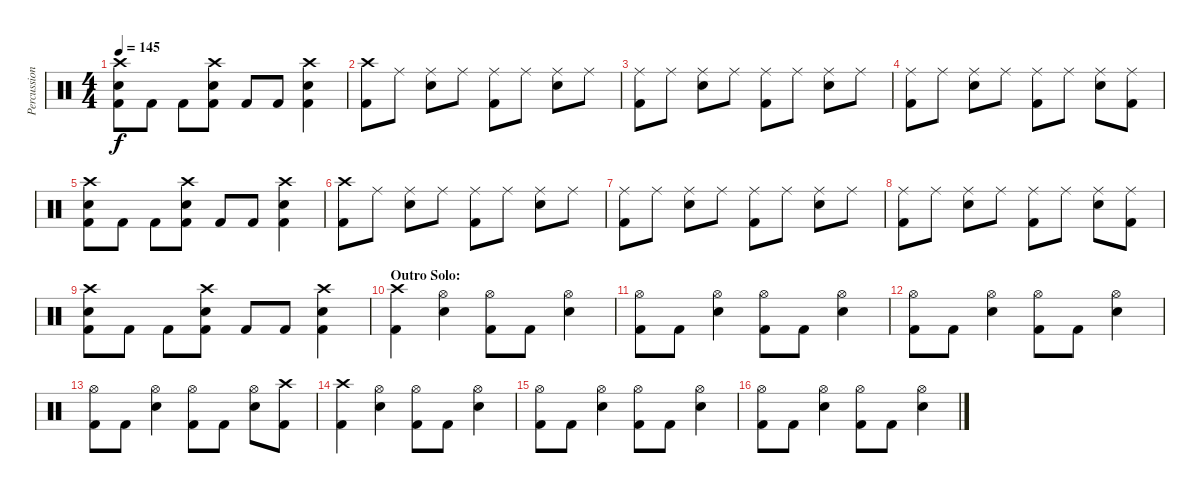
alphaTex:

\track ("Percussion" "Percussion") {instrument percussion}
\staff {score}
\articulation defaults
\ts (4 4)
\tempo 145
\clef neutral
\ks c
("Crash high (hit)" "Electric Snare (hit)" "Kick (hit) 2").8{dy f} "Kick (hit) 2".8 "Kick (hit) 2".8 ("Crash high (hit)" "Electric Snare (hit)" "Kick (hit) 2").8 "Kick (hit) 2".8 "Kick (hit) 2".8 ("Crash high (hit)" "Electric Snare (hit)" "Kick (hit) 2").4 |
("Crash high (hit)" "Kick (hit) 2").8 "Ride (middle)".8 ("Ride (middle)" "Electric Snare (hit)").8 "Ride (middle)".8 ("Ride (middle)" "Kick (hit) 2").8 "Ride (middle)".8 ("Ride (middle)" "Electric Snare (hit)").8 "Ride (middle)".8 |
("Ride (middle)" "Kick (hit) 2").8 "Ride (middle)".8 ("Ride (middle)" "Electric Snare (hit)").8 "Ride (middle)".8 ("Ride (middle)" "Kick (hit) 2").8 "Ride (middle)".8 ("Ride (middle)" "Electric Snare (hit)").8 "Ride (middle)".8 |
("Ride (middle)" "Kick (hit) 2").8 "Ride (middle)".8 ("Ride (middle)" "Electric Snare (hit)").8 "Ride (middle)".8 ("Ride (middle)" "Kick (hit) 2").8 "Ride (middle)".8 ("Ride (middle)" "Electric Snare (hit)").8 ("Ride (middle)" "Kick (hit) 2").8 |
("Crash high (hit)" "Electric Snare (hit)" "Kick (hit) 2").8 "Kick (hit) 2".8 "Kick (hit) 2".8 ("Crash high (hit)" "Electric Snare (hit)" "Kick (hit) 2").8 "Kick (hit) 2".8 "Kick (hit) 2".8 ("Crash high (hit)" "Electric Snare (hit)" "Kick (hit) 2").4 |
("Crash high (hit)" "Kick (hit) 2").8 "Ride (middle)".8 ("Ride (middle)" "Electric Snare (hit)").8 "Ride (middle)".8 ("Ride (middle)" "Kick (hit) 2").8 "Ride (middle)".8 ("Ride (middle)" "Electric Snare (hit)").8 "Ride (middle)".8 |
("Ride (middle)" "Kick (hit) 2").8 "Ride (middle)".8 ("Ride (middle)" "Electric Snare (hit)").8 "Ride (middle)".8 ("Ride (middle)" "Kick (hit) 2").8 "Ride (middle)".8 ("Ride (middle)" "Electric Snare (hit)").8 "Ride (middle)".8 |
("Ride (middle)" "Kick (hit) 2").8 "Ride (middle)".8 ("Ride (middle)" "Electric Snare (hit)").8 "Ride (middle)".8 ("Ride (middle)" "Kick (hit) 2").8 "Ride (middle)".8 ("Ride (middle)" "Electric Snare (hit)").8 ("Ride (middle)" "Kick (hit) 2").8 |
("Crash high (hit)" "Electric Snare (hit)" "Kick (hit) 2").8 "Kick (hit) 2".8 "Kick (hit) 2".8 ("Crash high (hit)" "Electric Snare (hit)" "Kick (hit) 2").8 "Kick (hit) 2".8 "Kick (hit) 2".8 ("Crash high (hit)" "Electric Snare (hit)" "Kick (hit) 2").4 |
\section ("" "Outro Solo:")
("Crash high (hit)" "Kick (hit) 2").4 ("Hi-Hat (open)" "Electric Snare (hit)").4 ("Hi-Hat (open)" "Kick (hit) 2").8 "Kick (hit) 2".8 ("Hi-Hat (open)" "Electric Snare (hit)").4 |
("Hi-Hat (open)" "Kick (hit) 2").8 "Kick (hit) 2".8 ("Hi-Hat (open)" "Electric Snare (hit)").4 ("Hi-Hat (open)" "Kick (hit) 2").8 "Kick (hit) 2".8 ("Hi-Hat (open)" "Electric Snare (hit)").4 |
("Hi-Hat (open)" "Kick (hit) 2").8 "Kick (hit) 2".8 ("Hi-Hat (open)" "Electric Snare (hit)").4 ("Hi-Hat (open)" "Kick (hit) 2").8 "Kick (hit) 2".8 ("Hi-Hat (open)" "Electric Snare (hit)").4 |
("Hi-Hat (open)" "Kick (hit) 2").8 "Kick (hit) 2".8 ("Hi-Hat (open)" "Electric Snare (hit)").4 ("Hi-Hat (open)" "Kick (hit) 2").8 "Kick (hit) 2".8 ("Hi-Hat (open)" "Electric Snare (hit)").8 ("Crash high (hit)" "Kick (hit) 2").8 |
("Crash high (hit)" "Kick (hit) 2").4 ("Hi-Hat (open)" "Electric Snare (hit)").4 ("Hi-Hat (open)" "Kick (hit) 2").8 "Kick (hit) 2".8 ("Hi-Hat (open)" "Electric Snare (hit)").4 |
("Hi-Hat (open)" "Kick (hit) 2").8 "Kick (hit) 2".8 ("Hi-Hat (open)" "Electric Snare (hit)").4 ("Hi-Hat (open)" "Kick (hit) 2").8 "Kick (hit) 2".8 ("Hi-Hat (open)" "Electric Snare (hit)").4 |
("Hi-Hat (open)" "Kick (hit) 2").8 "Kick (hit) 2".8 ("Hi-Hat (open)" "Electric Snare (hit)").4 ("Hi-Hat (open)" "Kick (hit) 2").8 "Kick (hit) 2".8 ("Hi-Hat (open)" "Electric Snare (hit)").4
